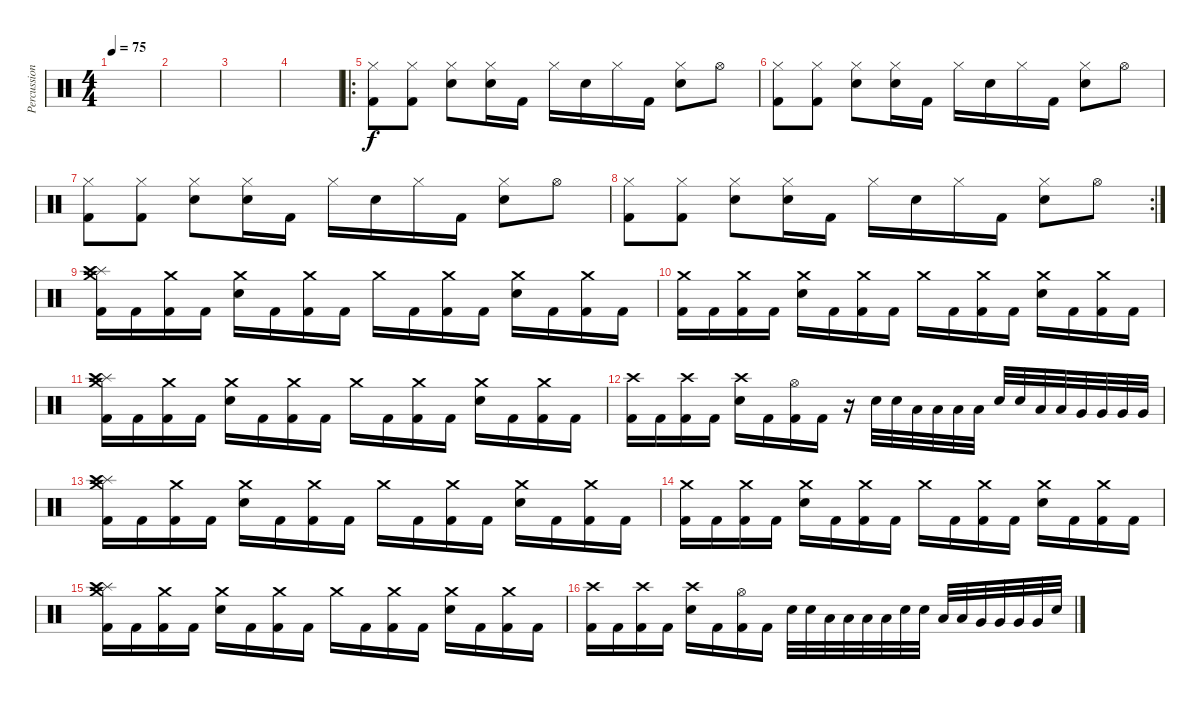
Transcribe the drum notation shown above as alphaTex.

\track ("Percussion" "Percussion") {instrument percussion}
\staff {score}
\articulation defaults
\ts (4 4)
\tempo 75
\clef neutral
\ks c
|
|
|
|
\ro
("Hi-Hat (closed)" "Kick (hit) 2").8{balance 16} ("Hi-Hat (closed)" "Kick (hit) 2").8 ("Hi-Hat (closed)" "Electric Snare (hit)").8 ("Hi-Hat (closed)" "Electric Snare (hit)").16 "Kick (hit) 2".16 "Hi-Hat (closed)".16 "Electric Snare (hit)".16 "Hi-Hat (closed)".16 "Kick (hit) 2".16 ("Hi-Hat (closed)" "Electric Snare (hit)").8 "Hi-Hat (open)".8 |
("Hi-Hat (closed)" "Kick (hit) 2").8 ("Hi-Hat (closed)" "Kick (hit) 2").8 ("Hi-Hat (closed)" "Electric Snare (hit)").8 ("Hi-Hat (closed)" "Electric Snare (hit)").16 "Kick (hit) 2".16 "Hi-Hat (closed)".16 "Electric Snare (hit)".16 "Hi-Hat (closed)".16 "Kick (hit) 2".16 ("Hi-Hat (closed)" "Electric Snare (hit)").8 "Hi-Hat (open)".8 |
("Hi-Hat (closed)" "Kick (hit) 2").8 ("Hi-Hat (closed)" "Kick (hit) 2").8 ("Hi-Hat (closed)" "Electric Snare (hit)").8 ("Hi-Hat (closed)" "Electric Snare (hit)").16 "Kick (hit) 2".16 "Hi-Hat (closed)".16 "Electric Snare (hit)".16 "Hi-Hat (closed)".16 "Kick (hit) 2".16 ("Hi-Hat (closed)" "Electric Snare (hit)").8 "Hi-Hat (open)".8 |
\rc 2
("Hi-Hat (closed)" "Kick (hit) 2").8 ("Hi-Hat (closed)" "Kick (hit) 2").8 ("Hi-Hat (closed)" "Electric Snare (hit)").8 ("Hi-Hat (closed)" "Electric Snare (hit)").16 "Kick (hit) 2".16 "Hi-Hat (closed)".16 "Electric Snare (hit)".16 "Hi-Hat (closed)".16 "Kick (hit) 2".16 ("Hi-Hat (closed)" "Electric Snare (hit)").8 "Hi-Hat (open)".8 |
("Splash (hit)" "Crash high (hit)" "Crash medium (hit)" "Kick (hit) 2").16 "Kick (hit) 2".16 ("Crash medium (hit)" "Kick (hit) 2").16 "Kick (hit) 2".16 ("Crash medium (hit)" "Snare (hit) 2").16 "Kick (hit) 2".16 ("Crash medium (hit)" "Kick (hit) 2").16 "Kick (hit) 2".16 "Crash medium (hit)".16 "Kick (hit) 2".16 ("Crash medium (hit)" "Kick (hit) 2").16 "Kick (hit) 2".16 ("Crash medium (hit)" "Snare (hit) 2").16 "Kick (hit) 2".16 ("Crash medium (hit)" "Kick (hit) 2").16 "Kick (hit) 2".16 |
("Crash medium (hit)" "Kick (hit) 2").16 "Kick (hit) 2".16 ("Crash medium (hit)" "Kick (hit) 2").16 "Kick (hit) 2".16 ("Crash medium (hit)" "Snare (hit) 2").16 "Kick (hit) 2".16 ("Crash medium (hit)" "Kick (hit) 2").16 "Kick (hit) 2".16 "Crash medium (hit)".16 "Kick (hit) 2".16 ("Crash medium (hit)" "Kick (hit) 2").16 "Kick (hit) 2".16 ("Crash medium (hit)" "Snare (hit) 2").16 "Kick (hit) 2".16 ("Crash medium (hit)" "Kick (hit) 2").16 "Kick (hit) 2".16 |
("Splash (hit)" "Crash high (hit)" "Crash medium (hit)" "Kick (hit) 2").16 "Kick (hit) 2".16 ("Crash medium (hit)" "Kick (hit) 2").16 "Kick (hit) 2".16 ("Crash medium (hit)" "Snare (hit) 2").16 "Kick (hit) 2".16 ("Crash medium (hit)" "Kick (hit) 2").16 "Kick (hit) 2".16 "Crash medium (hit)".16 "Kick (hit) 2".16 ("Crash medium (hit)" "Kick (hit) 2").16 "Kick (hit) 2".16 ("Crash medium (hit)" "Snare (hit) 2").16 "Kick (hit) 2".16 ("Crash medium (hit)" "Kick (hit) 2").16 "Kick (hit) 2".16 |
("Crash high (hit)" "Kick (hit) 2").16 "Kick (hit) 2".16 ("Crash high (hit)" "Kick (hit) 2").16 "Kick (hit) 2".16 ("Crash high (hit)" "Snare (hit) 2").16 "Kick (hit) 2".16 ("Hi-Hat (open)" "Kick (hit) 2").16 "Kick (hit) 2".16 r.16 "Snare (hit) 2".32 "Snare (hit) 2".32 "Low Tom (hit)".32 "Low Tom (hit)".32 "Low Tom (hit)".32 "Low Tom (hit)".32 "Snare (hit) 2".32 "Snare (hit) 2".32 "Low Tom (hit)".32 "Low Tom (hit)".32 "Very Low Tom (hit)".32 "Very Low Tom (hit)".32 "Very Low Tom (hit)".32 "Very Low Tom (hit)".32 |
("Splash (hit)" "Crash high (hit)" "Crash medium (hit)" "Kick (hit) 2").16 "Kick (hit) 2".16 ("Crash medium (hit)" "Kick (hit) 2").16 "Kick (hit) 2".16 ("Crash medium (hit)" "Snare (hit) 2").16 "Kick (hit) 2".16 ("Crash medium (hit)" "Kick (hit) 2").16 "Kick (hit) 2".16 "Crash medium (hit)".16 "Kick (hit) 2".16 ("Crash medium (hit)" "Kick (hit) 2").16 "Kick (hit) 2".16 ("Crash medium (hit)" "Snare (hit) 2").16 "Kick (hit) 2".16 ("Crash medium (hit)" "Kick (hit) 2").16 "Kick (hit) 2".16 |
("Crash medium (hit)" "Kick (hit) 2").16 "Kick (hit) 2".16 ("Crash medium (hit)" "Kick (hit) 2").16 "Kick (hit) 2".16 ("Crash medium (hit)" "Snare (hit) 2").16 "Kick (hit) 2".16 ("Crash medium (hit)" "Kick (hit) 2").16 "Kick (hit) 2".16 "Crash medium (hit)".16 "Kick (hit) 2".16 ("Crash medium (hit)" "Kick (hit) 2").16 "Kick (hit) 2".16 ("Crash medium (hit)" "Snare (hit) 2").16 "Kick (hit) 2".16 ("Crash medium (hit)" "Kick (hit) 2").16 "Kick (hit) 2".16 |
("Splash (hit)" "Crash high (hit)" "Crash medium (hit)" "Kick (hit) 2").16 "Kick (hit) 2".16 ("Crash medium (hit)" "Kick (hit) 2").16 "Kick (hit) 2".16 ("Crash medium (hit)" "Snare (hit) 2").16 "Kick (hit) 2".16 ("Crash medium (hit)" "Kick (hit) 2").16 "Kick (hit) 2".16 "Crash medium (hit)".16 "Kick (hit) 2".16 ("Crash medium (hit)" "Kick (hit) 2").16 "Kick (hit) 2".16 ("Crash medium (hit)" "Snare (hit) 2").16 "Kick (hit) 2".16 ("Crash medium (hit)" "Kick (hit) 2").16 "Kick (hit) 2".16 |
("Crash high (hit)" "Kick (hit) 2").16 "Kick (hit) 2".16 ("Crash high (hit)" "Kick (hit) 2").16 "Kick (hit) 2".16 ("Crash high (hit)" "Snare (hit) 2").16 "Kick (hit) 2".16 ("Hi-Hat (open)" "Kick (hit) 2").16 "Kick (hit) 2".16 "Snare (hit) 2".32 "Snare (hit) 2".32 "Low Tom (hit)".32 "Low Tom (hit)".32 "Low Tom (hit)".32 "Low Tom (hit)".32 "Snare (hit) 2".32 "Snare (hit) 2".32 "Low Tom (hit)".32 "Low Tom (hit)".32 "Very Low Tom (hit)".32 "Very Low Tom (hit)".32 "Very Low Tom (hit)".32 "Very Low Tom (hit)".32 "Snare (hit) 2".32
